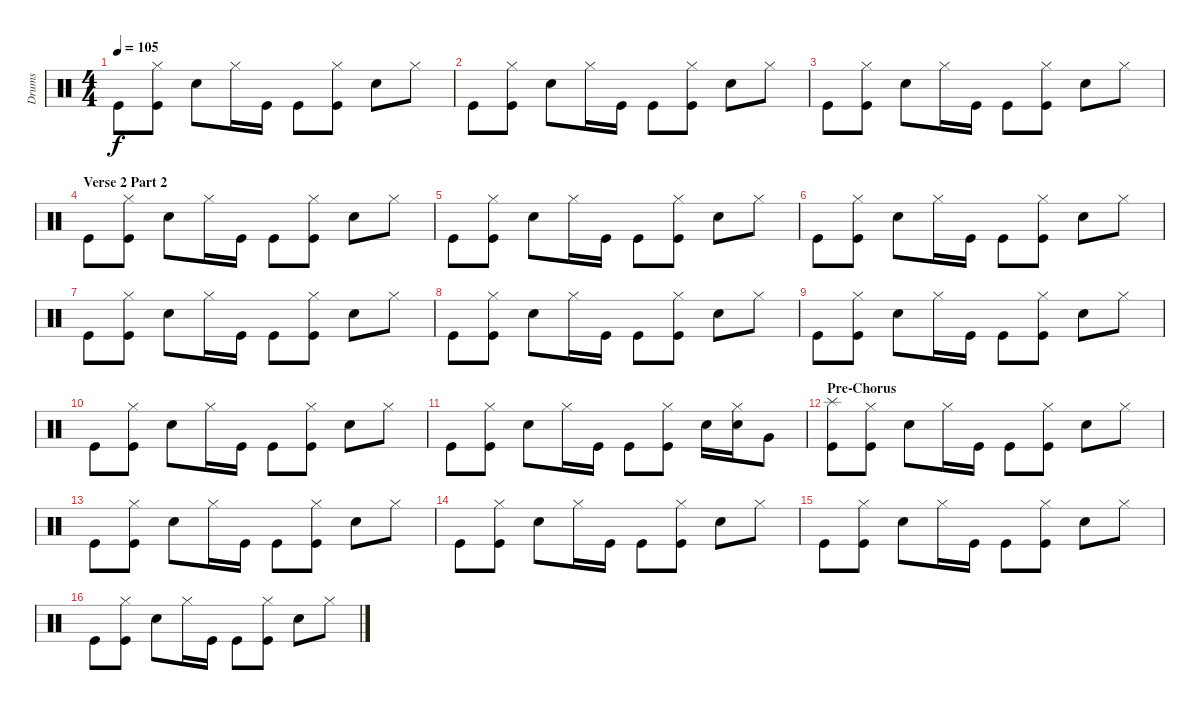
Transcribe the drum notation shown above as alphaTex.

\track ("Drums" "Drums") {instrument percussion}
\staff {score}
\articulation defaults
\ts (4 4)
\tempo 105
\clef neutral
\ks c "Kick (hit)".8{dy f}
("Kick (hit)" "Hi-Hat (closed)").8 "Electric Snare (hit)".8 "Hi-Hat (closed)".16 "Kick (hit)".16 "Kick (hit)".8 ("Kick (hit)" "Hi-Hat (closed)").8 "Electric Snare (hit)".8 "Hi-Hat (closed)".8 |
"Kick (hit)".8 ("Kick (hit)" "Hi-Hat (closed)").8 "Electric Snare (hit)".8 "Hi-Hat (closed)".16 "Kick (hit)".16 "Kick (hit)".8 ("Kick (hit)" "Hi-Hat (closed)").8 "Electric Snare (hit)".8 "Hi-Hat (closed)".8 |
"Kick (hit)".8 ("Kick (hit)" "Hi-Hat (closed)").8 "Electric Snare (hit)".8 "Hi-Hat (closed)".16 "Kick (hit)".16 "Kick (hit)".8 ("Kick (hit)" "Hi-Hat (closed)").8 "Electric Snare (hit)".8 "Hi-Hat (closed)".8 |
\section ("" "Verse 2 Part 2")
"Kick (hit)".8 ("Kick (hit)" "Hi-Hat (closed)").8 "Electric Snare (hit)".8 "Hi-Hat (closed)".16 "Kick (hit)".16 "Kick (hit)".8 ("Kick (hit)" "Hi-Hat (closed)").8 "Electric Snare (hit)".8 "Hi-Hat (closed)".8 |
"Kick (hit)".8 ("Kick (hit)" "Hi-Hat (closed)").8 "Electric Snare (hit)".8 "Hi-Hat (closed)".16 "Kick (hit)".16 "Kick (hit)".8 ("Kick (hit)" "Hi-Hat (closed)").8 "Electric Snare (hit)".8 "Hi-Hat (closed)".8 |
"Kick (hit)".8 ("Kick (hit)" "Hi-Hat (closed)").8 "Electric Snare (hit)".8 "Hi-Hat (closed)".16 "Kick (hit)".16 "Kick (hit)".8 ("Kick (hit)" "Hi-Hat (closed)").8 "Electric Snare (hit)".8 "Hi-Hat (closed)".8 |
"Kick (hit)".8 ("Kick (hit)" "Hi-Hat (closed)").8 "Electric Snare (hit)".8 "Hi-Hat (closed)".16 "Kick (hit)".16 "Kick (hit)".8 ("Kick (hit)" "Hi-Hat (closed)").8 "Electric Snare (hit)".8 "Hi-Hat (closed)".8 |
"Kick (hit)".8 ("Kick (hit)" "Hi-Hat (closed)").8 "Electric Snare (hit)".8 "Hi-Hat (closed)".16 "Kick (hit)".16 "Kick (hit)".8 ("Kick (hit)" "Hi-Hat (closed)").8 "Electric Snare (hit)".8 "Hi-Hat (closed)".8 |
"Kick (hit)".8 ("Kick (hit)" "Hi-Hat (closed)").8 "Electric Snare (hit)".8 "Hi-Hat (closed)".16 "Kick (hit)".16 "Kick (hit)".8 ("Kick (hit)" "Hi-Hat (closed)").8 "Electric Snare (hit)".8 "Hi-Hat (closed)".8 |
"Kick (hit)".8 ("Kick (hit)" "Hi-Hat (closed)").8 "Electric Snare (hit)".8 "Hi-Hat (closed)".16 "Kick (hit)".16 "Kick (hit)".8 ("Kick (hit)" "Hi-Hat (closed)").8 "Electric Snare (hit)".8 "Hi-Hat (closed)".8 |
"Kick (hit)".8 ("Kick (hit)" "Hi-Hat (closed)").8 "Electric Snare (hit)".8 "Hi-Hat (closed)".16 "Kick (hit)".16 "Kick (hit)".8 ("Kick (hit)" "Hi-Hat (closed)").8 "Electric Snare (hit)".16 ("Electric Snare (hit)" "Hi-Hat (closed)").16 "Very Low Tom (hit)".8 |
\section ("" "Pre-Chorus")
("Kick (hit)" "Splash (hit)").8 ("Kick (hit)" "Hi-Hat (closed)").8 "Electric Snare (hit)".8 "Hi-Hat (closed)".16 "Kick (hit)".16 "Kick (hit)".8 ("Kick (hit)" "Hi-Hat (closed)").8 "Electric Snare (hit)".8 "Hi-Hat (closed)".8 |
"Kick (hit)".8 ("Kick (hit)" "Hi-Hat (closed)").8 "Electric Snare (hit)".8 "Hi-Hat (closed)".16 "Kick (hit)".16 "Kick (hit)".8 ("Kick (hit)" "Hi-Hat (closed)").8 "Electric Snare (hit)".8 "Hi-Hat (closed)".8 |
"Kick (hit)".8 ("Kick (hit)" "Hi-Hat (closed)").8 "Electric Snare (hit)".8 "Hi-Hat (closed)".16 "Kick (hit)".16 "Kick (hit)".8 ("Kick (hit)" "Hi-Hat (closed)").8 "Electric Snare (hit)".8 "Hi-Hat (closed)".8 |
"Kick (hit)".8 ("Kick (hit)" "Hi-Hat (closed)").8 "Electric Snare (hit)".8 "Hi-Hat (closed)".16 "Kick (hit)".16 "Kick (hit)".8 ("Kick (hit)" "Hi-Hat (closed)").8 "Electric Snare (hit)".8 "Hi-Hat (closed)".8 |
"Kick (hit)".8 ("Kick (hit)" "Hi-Hat (closed)").8 "Electric Snare (hit)".8 "Hi-Hat (closed)".16 "Kick (hit)".16 "Kick (hit)".8 ("Kick (hit)" "Hi-Hat (closed)").8 "Electric Snare (hit)".8 "Hi-Hat (closed)".8
